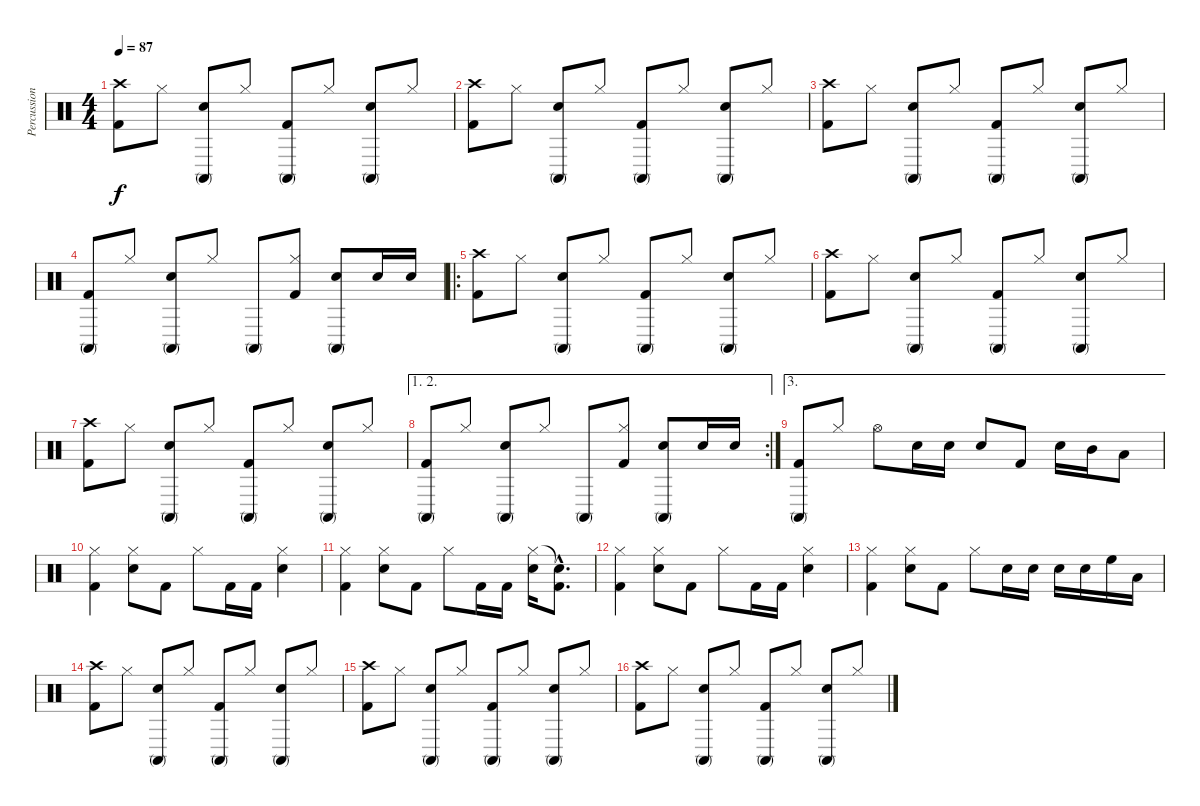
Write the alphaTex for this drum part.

\track ("Percussions" "Percussion") {instrument percussion}
\staff {score}
\articulation defaults
\ts (4 4)
\tempo 87
\clef neutral
\ks c
("Crash high (hit)" "Kick (hit) 2").8{dy f} "Hi-Hat (closed)".8 ("Conga high (mute)" "Snare (hit) 2").8 "Hi-Hat (closed)".8 ("Conga high (mute)" "Kick (hit) 2").8 "Hi-Hat (closed)".8 ("Conga high (mute)" "Snare (hit) 2").8 "Hi-Hat (closed)".8 |
("Crash high (hit)" "Kick (hit) 2").8 "Hi-Hat (closed)".8 ("Conga high (mute)" "Snare (hit) 2").8 "Hi-Hat (closed)".8 ("Conga high (mute)" "Kick (hit) 2").8 "Hi-Hat (closed)".8 ("Conga high (mute)" "Snare (hit) 2").8 "Hi-Hat (closed)".8 |
("Crash high (hit)" "Kick (hit) 2").8 "Hi-Hat (closed)".8 ("Conga high (mute)" "Snare (hit) 2").8 "Hi-Hat (closed)".8 ("Conga high (mute)" "Kick (hit) 2").8 "Hi-Hat (closed)".8 ("Conga high (mute)" "Snare (hit) 2").8 "Hi-Hat (closed)".8 |
("Conga high (mute)" "Kick (hit) 2").8 "Hi-Hat (closed)".8 ("Conga high (mute)" "Snare (hit) 2").8 "Hi-Hat (closed)".8 "Conga high (mute)".8 ("Hi-Hat (closed)" "Kick (hit) 2").8 ("Conga high (mute)" "Snare (hit) 2").8 "Snare (hit) 2".16 "Snare (hit) 2".16 |
\ro
("Crash high (hit)" "Kick (hit) 2").8 "Hi-Hat (closed)".8 ("Conga high (mute)" "Snare (hit) 2").8 "Hi-Hat (closed)".8 ("Conga high (mute)" "Kick (hit) 2").8 "Hi-Hat (closed)".8 ("Conga high (mute)" "Snare (hit) 2").8 "Hi-Hat (closed)".8 |
("Crash high (hit)" "Kick (hit) 2").8 "Hi-Hat (closed)".8 ("Conga high (mute)" "Snare (hit) 2").8 "Hi-Hat (closed)".8 ("Conga high (mute)" "Kick (hit) 2").8 "Hi-Hat (closed)".8 ("Conga high (mute)" "Snare (hit) 2").8 "Hi-Hat (closed)".8 |
("Crash high (hit)" "Kick (hit) 2").8 "Hi-Hat (closed)".8 ("Conga high (mute)" "Snare (hit) 2").8 "Hi-Hat (closed)".8 ("Conga high (mute)" "Kick (hit) 2").8 "Hi-Hat (closed)".8 ("Conga high (mute)" "Snare (hit) 2").8 "Hi-Hat (closed)".8 |
\ae (1 2)
\rc 2
("Conga high (mute)" "Kick (hit) 2").8 "Hi-Hat (closed)".8 ("Conga high (mute)" "Snare (hit) 2").8 "Hi-Hat (closed)".8 "Conga high (mute)".8 ("Hi-Hat (closed)" "Kick (hit) 2").8 ("Conga high (mute)" "Snare (hit) 2").8 "Snare (hit) 2".16 "Snare (hit) 2".16 |
\ae 3
("Conga high (mute)" "Kick (hit) 2").8 "Hi-Hat (closed)".8 "Hi-Hat (open)".8 "Snare (hit) 2".16 "Snare (hit) 2".16 "Snare (hit) 2".8 "Kick (hit) 2".8 "Snare (hit) 2".16 "Mid Tom (hit)".16 "Low Tom (hit)".8 |
("Hi-Hat (closed)" "Kick (hit) 2").4 ("Hi-Hat (closed)" "Snare (hit) 2").8 "Kick (hit) 2".8 "Hi-Hat (closed)".8 "Kick (hit) 2".16 "Kick (hit) 2".16 ("Hi-Hat (closed)" "Snare (hit) 2").4 |
("Hi-Hat (closed)" "Kick (hit) 2").4 ("Hi-Hat (closed)" "Snare (hit) 2").8 "Kick (hit) 2".8 "Hi-Hat (closed)".8 "Kick (hit) 2".16 "Kick (hit) 2".16 ("Hi-Hat (closed)" "Snare (hit) 2").16 ("Snare (hit)"{hac t} "Kick (hit) 2"{hac}).8{d} |
("Hi-Hat (closed)" "Kick (hit) 2").4 ("Hi-Hat (closed)" "Snare (hit) 2").8 "Kick (hit) 2".8 "Hi-Hat (closed)".8 "Kick (hit) 2".16 "Kick (hit) 2".16 ("Hi-Hat (closed)" "Snare (hit) 2").4 |
("Hi-Hat (closed)" "Kick (hit) 2").4 ("Hi-Hat (closed)" "Snare (hit) 2").8 "Kick (hit) 2".8 "Hi-Hat (closed)".8 "Snare (hit) 2".16 "Snare (hit) 2".16 "Snare (hit) 2".16 "Snare (hit) 2".16 "High Floor Tom (hit)".16 "Low Tom (hit)".16 |
("Crash high (hit)" "Kick (hit) 2").8 "Hi-Hat (closed)".8 ("Conga high (mute)" "Snare (hit) 2").8 "Hi-Hat (closed)".8 ("Conga high (mute)" "Kick (hit) 2").8 "Hi-Hat (closed)".8 ("Conga high (mute)" "Snare (hit) 2").8 "Hi-Hat (closed)".8 |
("Crash high (hit)" "Kick (hit) 2").8 "Hi-Hat (closed)".8 ("Conga high (mute)" "Snare (hit) 2").8 "Hi-Hat (closed)".8 ("Conga high (mute)" "Kick (hit) 2").8 "Hi-Hat (closed)".8 ("Conga high (mute)" "Snare (hit) 2").8 "Hi-Hat (closed)".8 |
("Crash high (hit)" "Kick (hit) 2").8 "Hi-Hat (closed)".8 ("Conga high (mute)" "Snare (hit) 2").8 "Hi-Hat (closed)".8 ("Conga high (mute)" "Kick (hit) 2").8 "Hi-Hat (closed)".8 ("Conga high (mute)" "Snare (hit) 2").8 "Hi-Hat (closed)".8
